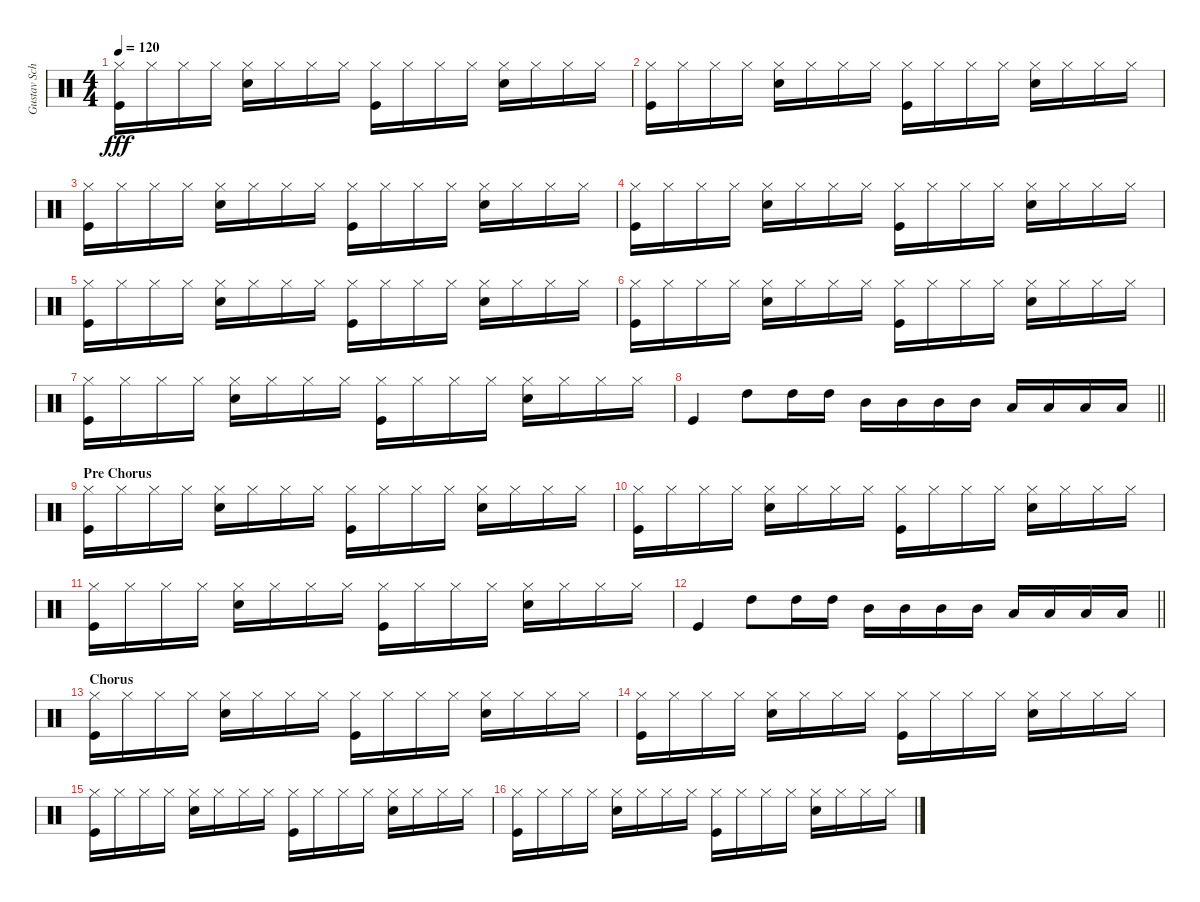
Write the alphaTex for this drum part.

\track ("Gustav Schäfer" "Gustav Sch") {instrument percussion}
\staff {score}
\articulation defaults
\ts (4 4)
\tempo 120
\clef neutral
\ks c
("Hi-Hat (closed)" "Kick (hit)").16{dy fff} "Hi-Hat (closed)".16 "Hi-Hat (closed)".16 "Hi-Hat (closed)".16 ("Hi-Hat (closed)" "Snare (hit) 2").16 "Hi-Hat (closed)".16 "Hi-Hat (closed)".16 "Hi-Hat (closed)".16 ("Hi-Hat (closed)" "Kick (hit)").16 "Hi-Hat (closed)".16 "Hi-Hat (closed)".16 "Hi-Hat (closed)".16 ("Hi-Hat (closed)" "Snare (hit) 2").16 "Hi-Hat (closed)".16 "Hi-Hat (closed)".16 "Hi-Hat (closed)".16 |
("Hi-Hat (closed)" "Kick (hit)").16 "Hi-Hat (closed)".16 "Hi-Hat (closed)".16 "Hi-Hat (closed)".16 ("Hi-Hat (closed)" "Snare (hit) 2").16 "Hi-Hat (closed)".16 "Hi-Hat (closed)".16 "Hi-Hat (closed)".16 ("Hi-Hat (closed)" "Kick (hit)").16 "Hi-Hat (closed)".16 "Hi-Hat (closed)".16 "Hi-Hat (closed)".16 ("Hi-Hat (closed)" "Snare (hit) 2").16 "Hi-Hat (closed)".16 "Hi-Hat (closed)".16 "Hi-Hat (closed)".16 |
("Hi-Hat (closed)" "Kick (hit)").16 "Hi-Hat (closed)".16 "Hi-Hat (closed)".16 "Hi-Hat (closed)".16 ("Hi-Hat (closed)" "Snare (hit) 2").16 "Hi-Hat (closed)".16 "Hi-Hat (closed)".16 "Hi-Hat (closed)".16 ("Hi-Hat (closed)" "Kick (hit)").16 "Hi-Hat (closed)".16 "Hi-Hat (closed)".16 "Hi-Hat (closed)".16 ("Hi-Hat (closed)" "Snare (hit) 2").16 "Hi-Hat (closed)".16 "Hi-Hat (closed)".16 "Hi-Hat (closed)".16 |
("Hi-Hat (closed)" "Kick (hit)").16 "Hi-Hat (closed)".16 "Hi-Hat (closed)".16 "Hi-Hat (closed)".16 ("Hi-Hat (closed)" "Snare (hit) 2").16 "Hi-Hat (closed)".16 "Hi-Hat (closed)".16 "Hi-Hat (closed)".16 ("Hi-Hat (closed)" "Kick (hit)").16 "Hi-Hat (closed)".16 "Hi-Hat (closed)".16 "Hi-Hat (closed)".16 ("Hi-Hat (closed)" "Snare (hit) 2").16 "Hi-Hat (closed)".16 "Hi-Hat (closed)".16 "Hi-Hat (closed)".16 |
("Hi-Hat (closed)" "Kick (hit)").16 "Hi-Hat (closed)".16 "Hi-Hat (closed)".16 "Hi-Hat (closed)".16 ("Hi-Hat (closed)" "Snare (hit) 2").16 "Hi-Hat (closed)".16 "Hi-Hat (closed)".16 "Hi-Hat (closed)".16 ("Hi-Hat (closed)" "Kick (hit)").16 "Hi-Hat (closed)".16 "Hi-Hat (closed)".16 "Hi-Hat (closed)".16 ("Hi-Hat (closed)" "Snare (hit) 2").16 "Hi-Hat (closed)".16 "Hi-Hat (closed)".16 "Hi-Hat (closed)".16 |
("Hi-Hat (closed)" "Kick (hit)").16 "Hi-Hat (closed)".16 "Hi-Hat (closed)".16 "Hi-Hat (closed)".16 ("Hi-Hat (closed)" "Snare (hit) 2").16 "Hi-Hat (closed)".16 "Hi-Hat (closed)".16 "Hi-Hat (closed)".16 ("Hi-Hat (closed)" "Kick (hit)").16 "Hi-Hat (closed)".16 "Hi-Hat (closed)".16 "Hi-Hat (closed)".16 ("Hi-Hat (closed)" "Snare (hit) 2").16 "Hi-Hat (closed)".16 "Hi-Hat (closed)".16 "Hi-Hat (closed)".16 |
("Hi-Hat (closed)" "Kick (hit)").16 "Hi-Hat (closed)".16 "Hi-Hat (closed)".16 "Hi-Hat (closed)".16 ("Hi-Hat (closed)" "Snare (hit) 2").16 "Hi-Hat (closed)".16 "Hi-Hat (closed)".16 "Hi-Hat (closed)".16 ("Hi-Hat (closed)" "Kick (hit)").16 "Hi-Hat (closed)".16 "Hi-Hat (closed)".16 "Hi-Hat (closed)".16 ("Hi-Hat (closed)" "Snare (hit) 2").16 "Hi-Hat (closed)".16 "Hi-Hat (closed)".16 "Hi-Hat (closed)".16 |
\barLineRight lightlight "Kick (hit)".4 "High Tom (hit)".8 "High Tom (hit)".16 "High Tom (hit)".16 "Mid Tom (hit)".16 "Mid Tom (hit)".16 "Mid Tom (hit)".16 "Mid Tom (hit)".16 "Low Tom (hit)".16 "Low Tom (hit)".16 "Low Tom (hit)".16 "Low Tom (hit)".16
|
\section ("" "Pre Chorus")
("Hi-Hat (closed)" "Kick (hit)").16 "Hi-Hat (closed)".16 "Hi-Hat (closed)".16 "Hi-Hat (closed)".16 ("Hi-Hat (closed)" "Snare (hit) 2").16 "Hi-Hat (closed)".16 "Hi-Hat (closed)".16 "Hi-Hat (closed)".16 ("Hi-Hat (closed)" "Kick (hit)").16 "Hi-Hat (closed)".16 "Hi-Hat (closed)".16 "Hi-Hat (closed)".16 ("Hi-Hat (closed)" "Snare (hit) 2").16 "Hi-Hat (closed)".16 "Hi-Hat (closed)".16 "Hi-Hat (closed)".16 |
("Hi-Hat (closed)" "Kick (hit)").16 "Hi-Hat (closed)".16 "Hi-Hat (closed)".16 "Hi-Hat (closed)".16 ("Hi-Hat (closed)" "Snare (hit) 2").16 "Hi-Hat (closed)".16 "Hi-Hat (closed)".16 "Hi-Hat (closed)".16 ("Hi-Hat (closed)" "Kick (hit)").16 "Hi-Hat (closed)".16 "Hi-Hat (closed)".16 "Hi-Hat (closed)".16 ("Hi-Hat (closed)" "Snare (hit) 2").16 "Hi-Hat (closed)".16 "Hi-Hat (closed)".16 "Hi-Hat (closed)".16 |
("Hi-Hat (closed)" "Kick (hit)").16 "Hi-Hat (closed)".16 "Hi-Hat (closed)".16 "Hi-Hat (closed)".16 ("Hi-Hat (closed)" "Snare (hit) 2").16 "Hi-Hat (closed)".16 "Hi-Hat (closed)".16 "Hi-Hat (closed)".16 ("Hi-Hat (closed)" "Kick (hit)").16 "Hi-Hat (closed)".16 "Hi-Hat (closed)".16 "Hi-Hat (closed)".16 ("Hi-Hat (closed)" "Snare (hit) 2").16 "Hi-Hat (closed)".16 "Hi-Hat (closed)".16 "Hi-Hat (closed)".16 |
\barLineRight lightlight "Kick (hit)".4 "High Tom (hit)".8 "High Tom (hit)".16 "High Tom (hit)".16 "Mid Tom (hit)".16 "Mid Tom (hit)".16 "Mid Tom (hit)".16 "Mid Tom (hit)".16 "Low Tom (hit)".16 "Low Tom (hit)".16 "Low Tom (hit)".16 "Low Tom (hit)".16
|
\section ("" "Chorus")
("Hi-Hat (closed)" "Kick (hit)").16 "Hi-Hat (closed)".16 "Hi-Hat (closed)".16 "Hi-Hat (closed)".16 ("Hi-Hat (closed)" "Snare (hit) 2").16 "Hi-Hat (closed)".16 "Hi-Hat (closed)".16 "Hi-Hat (closed)".16 ("Hi-Hat (closed)" "Kick (hit)").16 "Hi-Hat (closed)".16 "Hi-Hat (closed)".16 "Hi-Hat (closed)".16 ("Hi-Hat (closed)" "Snare (hit) 2").16 "Hi-Hat (closed)".16 "Hi-Hat (closed)".16 "Hi-Hat (closed)".16 |
("Hi-Hat (closed)" "Kick (hit)").16 "Hi-Hat (closed)".16 "Hi-Hat (closed)".16 "Hi-Hat (closed)".16 ("Hi-Hat (closed)" "Snare (hit) 2").16 "Hi-Hat (closed)".16 "Hi-Hat (closed)".16 "Hi-Hat (closed)".16 ("Hi-Hat (closed)" "Kick (hit)").16 "Hi-Hat (closed)".16 "Hi-Hat (closed)".16 "Hi-Hat (closed)".16 ("Hi-Hat (closed)" "Snare (hit) 2").16 "Hi-Hat (closed)".16 "Hi-Hat (closed)".16 "Hi-Hat (closed)".16 |
("Hi-Hat (closed)" "Kick (hit)").16 "Hi-Hat (closed)".16 "Hi-Hat (closed)".16 "Hi-Hat (closed)".16 ("Hi-Hat (closed)" "Snare (hit) 2").16 "Hi-Hat (closed)".16 "Hi-Hat (closed)".16 "Hi-Hat (closed)".16 ("Hi-Hat (closed)" "Kick (hit)").16 "Hi-Hat (closed)".16 "Hi-Hat (closed)".16 "Hi-Hat (closed)".16 ("Hi-Hat (closed)" "Snare (hit) 2").16 "Hi-Hat (closed)".16 "Hi-Hat (closed)".16 "Hi-Hat (closed)".16 |
("Hi-Hat (closed)" "Kick (hit)").16 "Hi-Hat (closed)".16 "Hi-Hat (closed)".16 "Hi-Hat (closed)".16 ("Hi-Hat (closed)" "Snare (hit) 2").16 "Hi-Hat (closed)".16 "Hi-Hat (closed)".16 "Hi-Hat (closed)".16 ("Hi-Hat (closed)" "Kick (hit)").16 "Hi-Hat (closed)".16 "Hi-Hat (closed)".16 "Hi-Hat (closed)".16 ("Hi-Hat (closed)" "Snare (hit) 2").16 "Hi-Hat (closed)".16 "Hi-Hat (closed)".16 "Hi-Hat (closed)".16
